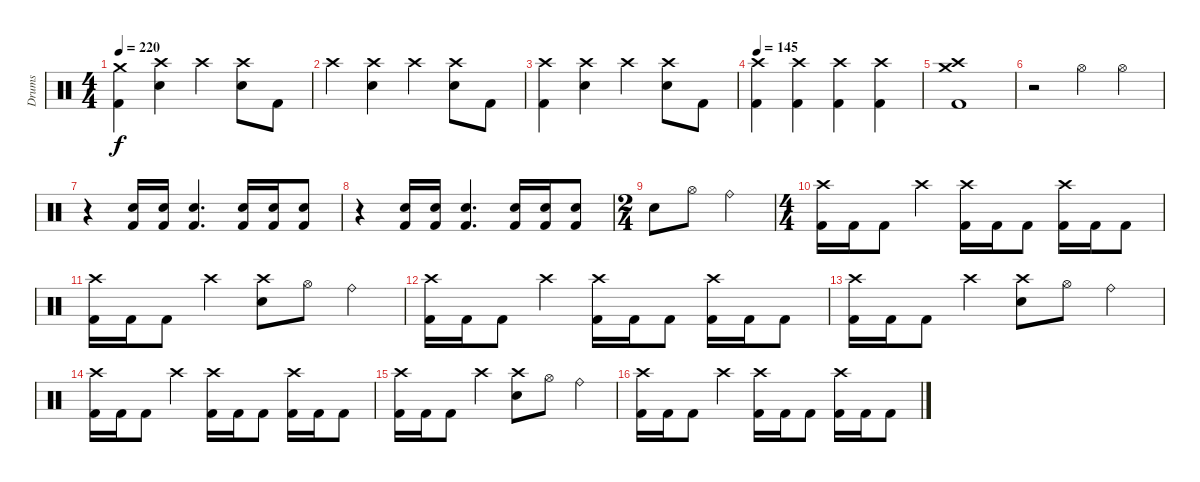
\track ("Drums" "Drums") {instrument percussion}
\staff {score}
\articulation defaults
\ts (4 4)
\tempo 220
\clef neutral
\ks c
("Crash medium (hit)" "Kick (hit) 2").4{dy f} ("Crash high (hit)" "Electric Snare (hit)").4 "Crash high (hit)".4 ("Crash high (hit)" "Electric Snare (hit)").8 "Kick (hit) 2".8 |
"Crash high (hit)".4 ("Crash high (hit)" "Electric Snare (hit)").4 "Crash high (hit)".4 ("Crash high (hit)" "Electric Snare (hit)").8 "Kick (hit) 2".8 |
("Crash high (hit)" "Kick (hit) 2").4 ("Crash high (hit)" "Electric Snare (hit)").4 "Crash high (hit)".4 ("Crash high (hit)" "Electric Snare (hit)").8 "Kick (hit) 2".8 |
\tempo 145
("Crash high (hit)" "Kick (hit) 2").4 ("Crash high (hit)" "Kick (hit) 2").4 ("Crash high (hit)" "Kick (hit) 2").4 ("Crash high (hit)" "Kick (hit) 2").4 |
("Crash high (hit)" "Crash medium (hit)" "Kick (hit) 2").1 |
r.2 "Hi-Hat (open)".4 "Hi-Hat (open)".4 |
r.4 ("Electric Snare (hit)" "Kick (hit) 2").16 ("Electric Snare (hit)" "Kick (hit) 2").16 ("Electric Snare (hit)" "Kick (hit) 2").4{d} ("Electric Snare (hit)" "Kick (hit) 2").16 ("Electric Snare (hit)" "Kick (hit) 2").16 ("Electric Snare (hit)" "Kick (hit) 2").8 |
r.4 ("Electric Snare (hit)" "Kick (hit) 2").16 ("Electric Snare (hit)" "Kick (hit) 2").16 ("Electric Snare (hit)" "Kick (hit) 2").4{d} ("Electric Snare (hit)" "Kick (hit) 2").16 ("Electric Snare (hit)" "Kick (hit) 2").16 ("Electric Snare (hit)" "Kick (hit) 2").8 |
\ts (2 4)
"Electric Snare (hit)".8 "Hi-Hat (open)".8 "Ride (bell)".4 |
\ts (4 4)
("Crash high (hit)" "Kick (hit) 2").16 "Kick (hit) 2".16 "Kick (hit) 2".8 "Crash high (hit)".4 ("Crash high (hit)" "Kick (hit) 2").16 "Kick (hit) 2".16 "Kick (hit) 2".8 ("Crash high (hit)" "Kick (hit) 2").16 "Kick (hit) 2".16 "Kick (hit) 2".8 |
("Crash high (hit)" "Kick (hit) 2").16 "Kick (hit) 2".16 "Kick (hit) 2".8 "Crash high (hit)".4 ("Crash high (hit)" "Electric Snare (hit)").8 "Hi-Hat (open)".8 "Ride (bell)".4 |
("Crash high (hit)" "Kick (hit) 2").16 "Kick (hit) 2".16 "Kick (hit) 2".8 "Crash high (hit)".4 ("Crash high (hit)" "Kick (hit) 2").16 "Kick (hit) 2".16 "Kick (hit) 2".8 ("Crash high (hit)" "Kick (hit) 2").16 "Kick (hit) 2".16 "Kick (hit) 2".8 |
("Crash high (hit)" "Kick (hit) 2").16 "Kick (hit) 2".16 "Kick (hit) 2".8 "Crash high (hit)".4 ("Crash high (hit)" "Electric Snare (hit)").8 "Hi-Hat (open)".8 "Ride (bell)".4 |
("Crash high (hit)" "Kick (hit) 2").16 "Kick (hit) 2".16 "Kick (hit) 2".8 "Crash high (hit)".4 ("Crash high (hit)" "Kick (hit) 2").16 "Kick (hit) 2".16 "Kick (hit) 2".8 ("Crash high (hit)" "Kick (hit) 2").16 "Kick (hit) 2".16 "Kick (hit) 2".8 |
("Crash high (hit)" "Kick (hit) 2").16 "Kick (hit) 2".16 "Kick (hit) 2".8 "Crash high (hit)".4 ("Crash high (hit)" "Electric Snare (hit)").8 "Hi-Hat (open)".8 "Ride (bell)".4 |
("Crash high (hit)" "Kick (hit) 2").16 "Kick (hit) 2".16 "Kick (hit) 2".8 "Crash high (hit)".4 ("Crash high (hit)" "Kick (hit) 2").16 "Kick (hit) 2".16 "Kick (hit) 2".8 ("Crash high (hit)" "Kick (hit) 2").16 "Kick (hit) 2".16 "Kick (hit) 2".8
